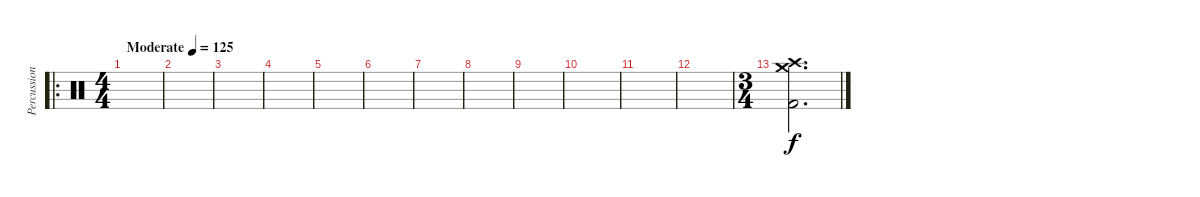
\track ("Percussion" "Percussion") {instrument percussion}
\staff {score}
\articulation defaults
\ro
\ts (4 4)
\tempo (125 "Moderate")
\clef neutral
\ks c
|
|
|
|
|
|
|
|
|
|
|
|
\ts (3 4)
("Crash medium (hit)" "Crash high (hit)" "Kick (hit) 2").2{d}
